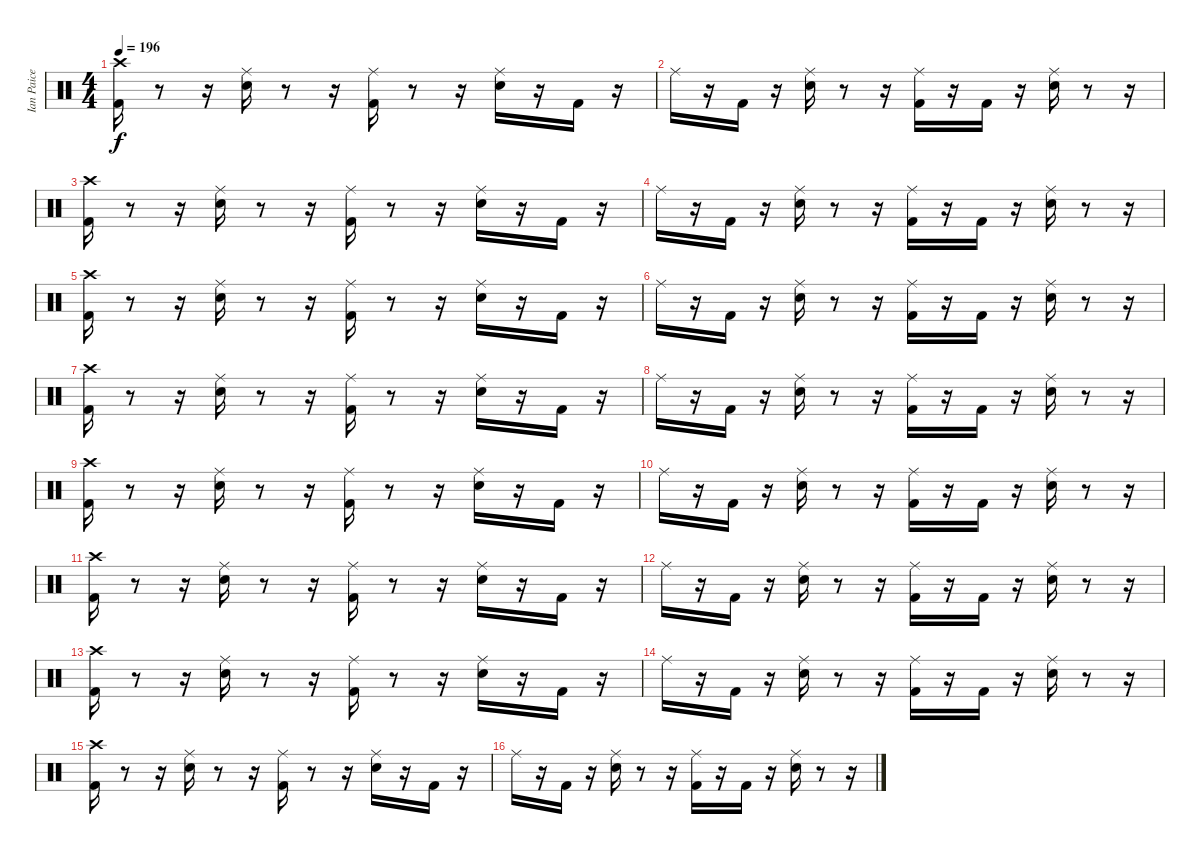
\track ("Ian Paice" "Ian Paice") {instrument percussion}
\staff {score}
\articulation defaults
\ts (4 4)
\tempo 196
\clef neutral
\ks c
("Crash high (hit)" "Kick (hit) 2").16{dy f} r.8 r.16 ("Snare (hit) 2" "Ride (middle)").16 r.8 r.16 ("Kick (hit) 2" "Ride (middle)").16 r.8 r.16 ("Snare (hit) 2" "Ride (middle)").16 r.16 "Kick (hit) 2".16 r.16 |
"Ride (middle)".16 r.16 "Kick (hit) 2".16 r.16 ("Snare (hit) 2" "Ride (middle)").16 r.8 r.16 ("Kick (hit) 2" "Ride (middle)").16 r.16 "Kick (hit) 2".16 r.16 ("Snare (hit) 2" "Ride (middle)").16 r.8 r.16 |
("Crash high (hit)" "Kick (hit) 2").16 r.8 r.16 ("Snare (hit) 2" "Ride (middle)").16 r.8 r.16 ("Kick (hit) 2" "Ride (middle)").16 r.8 r.16 ("Snare (hit) 2" "Ride (middle)").16 r.16 "Kick (hit) 2".16 r.16 |
"Ride (middle)".16 r.16 "Kick (hit) 2".16 r.16 ("Snare (hit) 2" "Ride (middle)").16 r.8 r.16 ("Kick (hit) 2" "Ride (middle)").16 r.16 "Kick (hit) 2".16 r.16 ("Snare (hit) 2" "Ride (middle)").16 r.8 r.16 |
("Crash high (hit)" "Kick (hit) 2").16 r.8 r.16 ("Snare (hit) 2" "Ride (middle)").16 r.8 r.16 ("Kick (hit) 2" "Ride (middle)").16 r.8 r.16 ("Snare (hit) 2" "Ride (middle)").16 r.16 "Kick (hit) 2".16 r.16 |
"Ride (middle)".16 r.16 "Kick (hit) 2".16 r.16 ("Snare (hit) 2" "Ride (middle)").16 r.8 r.16 ("Kick (hit) 2" "Ride (middle)").16 r.16 "Kick (hit) 2".16 r.16 ("Snare (hit) 2" "Ride (middle)").16 r.8 r.16 |
("Kick (hit) 2" "Crash high (hit)").16 r.8 r.16 ("Snare (hit) 2" "Ride (middle)").16 r.8 r.16 ("Kick (hit) 2" "Ride (middle)").16 r.8 r.16 ("Snare (hit) 2" "Ride (middle)").16 r.16 "Kick (hit) 2".16 r.16 |
"Ride (middle)".16 r.16 "Kick (hit) 2".16 r.16 ("Snare (hit) 2" "Ride (middle)").16 r.8 r.16 ("Kick (hit) 2" "Ride (middle)").16 r.16 "Kick (hit) 2".16 r.16 ("Snare (hit) 2" "Ride (middle)").16 r.8 r.16 |
("Crash high (hit)" "Kick (hit) 2").16 r.8 r.16 ("Snare (hit) 2" "Ride (middle)").16 r.8 r.16 ("Kick (hit) 2" "Ride (middle)").16 r.8 r.16 ("Snare (hit) 2" "Ride (middle)").16 r.16 "Kick (hit) 2".16 r.16 |
"Ride (middle)".16 r.16 "Kick (hit) 2".16 r.16 ("Snare (hit) 2" "Ride (middle)").16 r.8 r.16 ("Kick (hit) 2" "Ride (middle)").16 r.16 "Kick (hit) 2".16 r.16 ("Snare (hit) 2" "Ride (middle)").16 r.8 r.16 |
("Crash high (hit)" "Kick (hit) 2").16 r.8 r.16 ("Snare (hit) 2" "Ride (middle)").16 r.8 r.16 ("Kick (hit) 2" "Ride (middle)").16 r.8 r.16 ("Snare (hit) 2" "Ride (middle)").16 r.16 "Kick (hit) 2".16 r.16 |
"Ride (middle)".16 r.16 "Kick (hit) 2".16 r.16 ("Snare (hit) 2" "Ride (middle)").16 r.8 r.16 ("Kick (hit) 2" "Ride (middle)").16 r.16 "Kick (hit) 2".16 r.16 ("Snare (hit) 2" "Ride (middle)").16 r.8 r.16 |
("Crash high (hit)" "Kick (hit) 2").16 r.8 r.16 ("Snare (hit) 2" "Ride (middle)").16 r.8 r.16 ("Kick (hit) 2" "Ride (middle)").16 r.8 r.16 ("Snare (hit) 2" "Ride (middle)").16 r.16 "Kick (hit) 2".16 r.16 |
"Ride (middle)".16 r.16 "Kick (hit) 2".16 r.16 ("Snare (hit) 2" "Ride (middle)").16 r.8 r.16 ("Kick (hit) 2" "Ride (middle)").16 r.16 "Kick (hit) 2".16 r.16 ("Snare (hit) 2" "Ride (middle)").16 r.8 r.16 |
("Kick (hit) 2" "Crash high (hit)").16 r.8 r.16 ("Snare (hit) 2" "Ride (middle)").16 r.8 r.16 ("Kick (hit) 2" "Ride (middle)").16 r.8 r.16 ("Snare (hit) 2" "Ride (middle)").16 r.16 "Kick (hit) 2".16 r.16 |
"Ride (middle)".16 r.16 "Kick (hit) 2".16 r.16 ("Snare (hit) 2" "Ride (middle)").16 r.8 r.16 ("Kick (hit) 2" "Ride (middle)").16 r.16 "Kick (hit) 2".16 r.16 ("Snare (hit) 2" "Ride (middle)").16 r.8 r.16
